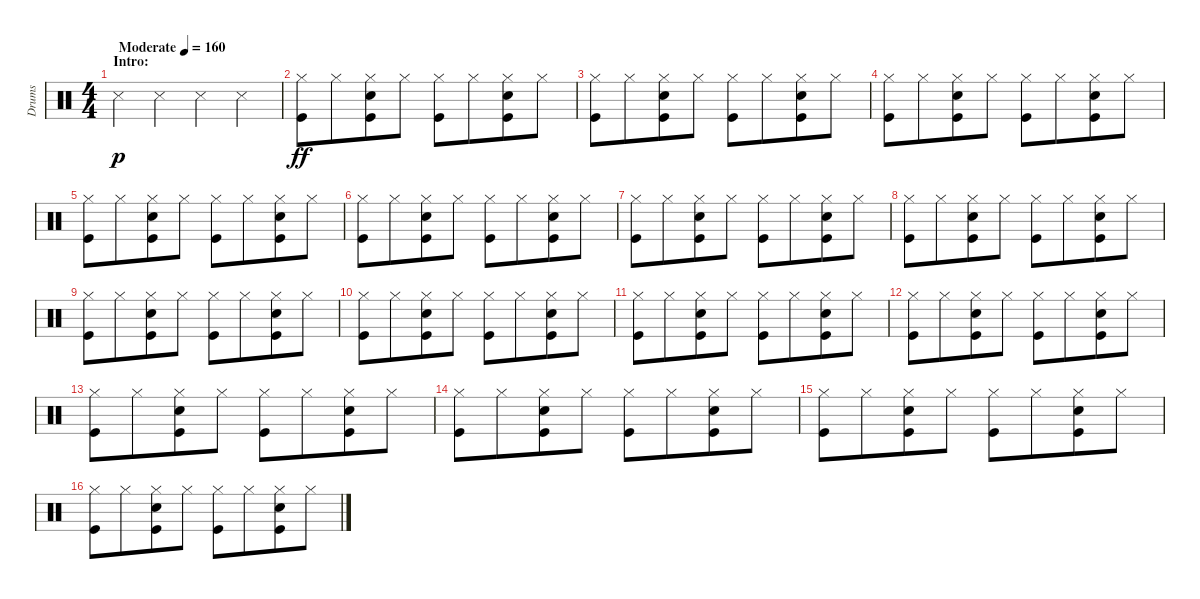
\track ("Drums" "Drums") {instrument percussion}
\staff {score}
\articulation defaults
\ts (4 4)
\section ("" "Intro:")
\tempo (160 "Moderate")
\clef neutral
\ks c "Snare (side stick) 3".4{dy p} "Snare (side stick) 3".4 "Snare (side stick) 3".4 "Snare (side stick) 3".4
|
("Hi-Hat (closed)" "Kick (hit)").8{dy ff} "Hi-Hat (closed)".8{beam merge} ("Hi-Hat (closed)" "Snare (hit) 2" "Kick (hit)").8 "Hi-Hat (closed)".8 ("Hi-Hat (closed)" "Kick (hit)").8 "Hi-Hat (closed)".8{beam merge} ("Hi-Hat (closed)" "Snare (hit) 2" "Kick (hit)").8 "Hi-Hat (closed)".8 |
("Hi-Hat (closed)" "Kick (hit)").8 "Hi-Hat (closed)".8{beam merge} ("Hi-Hat (closed)" "Snare (hit) 2" "Kick (hit)").8 "Hi-Hat (closed)".8 ("Hi-Hat (closed)" "Kick (hit)").8 "Hi-Hat (closed)".8{beam merge} ("Hi-Hat (closed)" "Snare (hit) 2" "Kick (hit)").8 "Hi-Hat (closed)".8 |
("Hi-Hat (closed)" "Kick (hit)").8 "Hi-Hat (closed)".8{beam merge} ("Hi-Hat (closed)" "Snare (hit) 2" "Kick (hit)").8 "Hi-Hat (closed)".8 ("Hi-Hat (closed)" "Kick (hit)").8 "Hi-Hat (closed)".8{beam merge} ("Hi-Hat (closed)" "Snare (hit) 2" "Kick (hit)").8 "Hi-Hat (closed)".8 |
("Hi-Hat (closed)" "Kick (hit)").8 "Hi-Hat (closed)".8{beam merge} ("Hi-Hat (closed)" "Snare (hit) 2" "Kick (hit)").8 "Hi-Hat (closed)".8 ("Hi-Hat (closed)" "Kick (hit)").8 "Hi-Hat (closed)".8{beam merge} ("Hi-Hat (closed)" "Snare (hit) 2" "Kick (hit)").8 "Hi-Hat (closed)".8 |
("Hi-Hat (closed)" "Kick (hit)").8 "Hi-Hat (closed)".8{beam merge} ("Hi-Hat (closed)" "Snare (hit) 2" "Kick (hit)").8 "Hi-Hat (closed)".8 ("Hi-Hat (closed)" "Kick (hit)").8 "Hi-Hat (closed)".8{beam merge} ("Hi-Hat (closed)" "Snare (hit) 2" "Kick (hit)").8 "Hi-Hat (closed)".8 |
("Hi-Hat (closed)" "Kick (hit)").8 "Hi-Hat (closed)".8{beam merge} ("Hi-Hat (closed)" "Snare (hit) 2" "Kick (hit)").8 "Hi-Hat (closed)".8 ("Hi-Hat (closed)" "Kick (hit)").8 "Hi-Hat (closed)".8{beam merge} ("Hi-Hat (closed)" "Snare (hit) 2" "Kick (hit)").8 "Hi-Hat (closed)".8 |
("Hi-Hat (closed)" "Kick (hit)").8 "Hi-Hat (closed)".8{beam merge} ("Hi-Hat (closed)" "Snare (hit) 2" "Kick (hit)").8 "Hi-Hat (closed)".8 ("Hi-Hat (closed)" "Kick (hit)").8 "Hi-Hat (closed)".8{beam merge} ("Hi-Hat (closed)" "Snare (hit) 2" "Kick (hit)").8 "Hi-Hat (closed)".8 |
("Hi-Hat (closed)" "Kick (hit)").8 "Hi-Hat (closed)".8{beam merge} ("Hi-Hat (closed)" "Snare (hit) 2" "Kick (hit)").8 "Hi-Hat (closed)".8 ("Hi-Hat (closed)" "Kick (hit)").8 "Hi-Hat (closed)".8{beam merge} ("Hi-Hat (closed)" "Snare (hit) 2" "Kick (hit)").8 "Hi-Hat (closed)".8 |
("Hi-Hat (closed)" "Kick (hit)").8 "Hi-Hat (closed)".8{beam merge} ("Hi-Hat (closed)" "Snare (hit) 2" "Kick (hit)").8 "Hi-Hat (closed)".8 ("Hi-Hat (closed)" "Kick (hit)").8 "Hi-Hat (closed)".8{beam merge} ("Hi-Hat (closed)" "Snare (hit) 2" "Kick (hit)").8 "Hi-Hat (closed)".8 |
("Hi-Hat (closed)" "Kick (hit)").8 "Hi-Hat (closed)".8{beam merge} ("Hi-Hat (closed)" "Snare (hit) 2" "Kick (hit)").8 "Hi-Hat (closed)".8 ("Hi-Hat (closed)" "Kick (hit)").8 "Hi-Hat (closed)".8{beam merge} ("Hi-Hat (closed)" "Snare (hit) 2" "Kick (hit)").8 "Hi-Hat (closed)".8 |
("Hi-Hat (closed)" "Kick (hit)").8 "Hi-Hat (closed)".8{beam merge} ("Hi-Hat (closed)" "Snare (hit) 2" "Kick (hit)").8 "Hi-Hat (closed)".8 ("Hi-Hat (closed)" "Kick (hit)").8 "Hi-Hat (closed)".8{beam merge} ("Hi-Hat (closed)" "Snare (hit) 2" "Kick (hit)").8 "Hi-Hat (closed)".8 |
("Hi-Hat (closed)" "Kick (hit)").8 "Hi-Hat (closed)".8{beam merge} ("Hi-Hat (closed)" "Snare (hit) 2" "Kick (hit)").8 "Hi-Hat (closed)".8 ("Hi-Hat (closed)" "Kick (hit)").8 "Hi-Hat (closed)".8{beam merge} ("Hi-Hat (closed)" "Snare (hit) 2" "Kick (hit)").8 "Hi-Hat (closed)".8 |
("Hi-Hat (closed)" "Kick (hit)").8 "Hi-Hat (closed)".8{beam merge} ("Hi-Hat (closed)" "Snare (hit) 2" "Kick (hit)").8 "Hi-Hat (closed)".8 ("Hi-Hat (closed)" "Kick (hit)").8 "Hi-Hat (closed)".8{beam merge} ("Hi-Hat (closed)" "Snare (hit) 2" "Kick (hit)").8 "Hi-Hat (closed)".8 |
("Hi-Hat (closed)" "Kick (hit)").8 "Hi-Hat (closed)".8{beam merge} ("Hi-Hat (closed)" "Snare (hit) 2" "Kick (hit)").8 "Hi-Hat (closed)".8 ("Hi-Hat (closed)" "Kick (hit)").8 "Hi-Hat (closed)".8{beam merge} ("Hi-Hat (closed)" "Snare (hit) 2" "Kick (hit)").8 "Hi-Hat (closed)".8 |
("Hi-Hat (closed)" "Kick (hit)").8 "Hi-Hat (closed)".8{beam merge} ("Hi-Hat (closed)" "Snare (hit) 2" "Kick (hit)").8 "Hi-Hat (closed)".8 ("Hi-Hat (closed)" "Kick (hit)").8 "Hi-Hat (closed)".8{beam merge} ("Hi-Hat (closed)" "Snare (hit) 2" "Kick (hit)").8 "Hi-Hat (closed)".8
